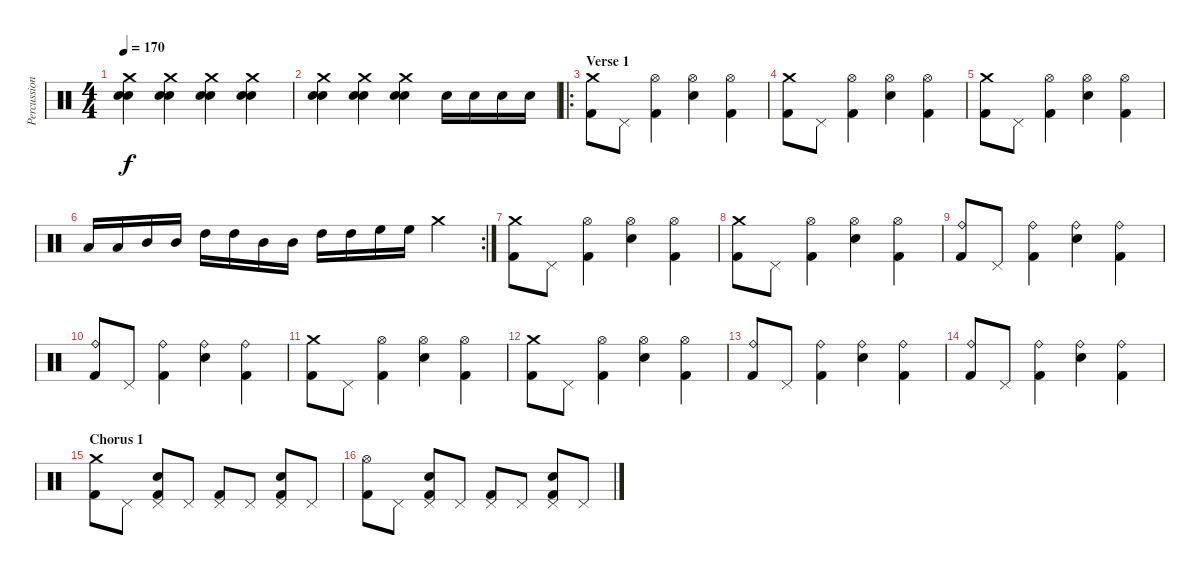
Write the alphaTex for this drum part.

\track ("Percussion" "Percussion") {instrument percussion}
\staff {score}
\articulation defaults
\ts (4 4)
\tempo 170
\clef neutral
\ks c
("Crash medium (hit)" "Electric Snare (hit)" "Electric Snare (hit)").4{dy f} ("Crash medium (hit)" "Electric Snare (hit)" "Electric Snare (hit)").4 ("Crash medium (hit)" "Electric Snare (hit)" "Electric Snare (hit)").4 ("Crash medium (hit)" "Electric Snare (hit)" "Electric Snare (hit)").4 |
("Crash medium (hit)" "Electric Snare (hit)" "Electric Snare (hit)").4 ("Crash medium (hit)" "Electric Snare (hit)" "Electric Snare (hit)").4 ("Crash medium (hit)" "Electric Snare (hit)" "Electric Snare (hit)").4 "Electric Snare (hit)".16 "Electric Snare (hit)".16 "Electric Snare (hit)".16 "Electric Snare (hit)".16 |
\ro
\section ("" "Verse 1")
("Crash medium (hit)" "Kick (hit) 2").8 "Pedal Hi-Hat (hit)".8 ("Hi-Hat (open)" "Kick (hit) 2").4 ("Hi-Hat (open)" "Electric Snare (hit)").4 ("Hi-Hat (open)" "Kick (hit) 2").4 |
("Crash medium (hit)" "Kick (hit) 2").8 "Pedal Hi-Hat (hit)".8 ("Hi-Hat (open)" "Kick (hit) 2").4 ("Hi-Hat (open)" "Electric Snare (hit)").4 ("Hi-Hat (open)" "Kick (hit) 2").4 |
("Crash medium (hit)" "Kick (hit) 2").8 "Pedal Hi-Hat (hit)".8 ("Hi-Hat (open)" "Kick (hit) 2").4 ("Hi-Hat (open)" "Electric Snare (hit)").4 ("Hi-Hat (open)" "Kick (hit) 2").4 |
\rc 2 "Low Tom (hit)".16 "Low Tom (hit)".16 "Mid Tom (hit)".16 "Mid Tom (hit)".16 "High Tom (hit)".16 "High Tom (hit)".16 "Mid Tom (hit)".16 "Mid Tom (hit)".16 "High Tom (hit)".16 "High Tom (hit)".16 "High Floor Tom (hit)".16 "High Floor Tom (hit)".16 "Crash medium (hit)".4
|
("Crash medium (hit)" "Kick (hit) 2").8 "Pedal Hi-Hat (hit)".8 ("Hi-Hat (open)" "Kick (hit) 2").4 ("Hi-Hat (open)" "Electric Snare (hit)").4 ("Hi-Hat (open)" "Kick (hit) 2").4 |
("Crash medium (hit)" "Kick (hit) 2").8 "Pedal Hi-Hat (hit)".8 ("Hi-Hat (open)" "Kick (hit) 2").4 ("Hi-Hat (open)" "Electric Snare (hit)").4 ("Hi-Hat (open)" "Kick (hit) 2").4 |
("Ride (bell)" "Kick (hit) 2").8 "Pedal Hi-Hat (hit)".8 ("Ride (bell)" "Kick (hit) 2").4 ("Ride (bell)" "Electric Snare (hit)").4 ("Ride (bell)" "Kick (hit) 2").4 |
("Ride (bell)" "Kick (hit) 2").8 "Pedal Hi-Hat (hit)".8 ("Ride (bell)" "Kick (hit) 2").4 ("Ride (bell)" "Electric Snare (hit)").4 ("Ride (bell)" "Kick (hit) 2").4 |
("Crash medium (hit)" "Kick (hit) 2").8 "Pedal Hi-Hat (hit)".8 ("Hi-Hat (open)" "Kick (hit) 2").4 ("Hi-Hat (open)" "Electric Snare (hit)").4 ("Hi-Hat (open)" "Kick (hit) 2").4 |
("Crash medium (hit)" "Kick (hit) 2").8 "Pedal Hi-Hat (hit)".8 ("Hi-Hat (open)" "Kick (hit) 2").4 ("Hi-Hat (open)" "Electric Snare (hit)").4 ("Hi-Hat (open)" "Kick (hit) 2").4 |
("Ride (bell)" "Kick (hit) 2").8 "Pedal Hi-Hat (hit)".8 ("Ride (bell)" "Kick (hit) 2").4 ("Ride (bell)" "Electric Snare (hit)").4 ("Ride (bell)" "Kick (hit) 2").4 |
("Ride (bell)" "Kick (hit) 2").8 "Pedal Hi-Hat (hit)".8 ("Ride (bell)" "Kick (hit) 2").4 ("Ride (bell)" "Electric Snare (hit)").4 ("Ride (bell)" "Kick (hit) 2").4 |
\section ("" "Chorus 1")
("Crash medium (hit)" "Kick (hit) 2").8 "Pedal Hi-Hat (hit)".8 ("Pedal Hi-Hat (hit)" "Electric Snare (hit)" "Kick (hit) 2").8 "Pedal Hi-Hat (hit)".8 ("Pedal Hi-Hat (hit)" "Kick (hit) 2").8 "Pedal Hi-Hat (hit)".8 ("Pedal Hi-Hat (hit)" "Electric Snare (hit)" "Kick (hit) 2").8 "Pedal Hi-Hat (hit)".8 |
("Hi-Hat (open)" "Kick (hit) 2").8 "Pedal Hi-Hat (hit)".8 ("Pedal Hi-Hat (hit)" "Electric Snare (hit)" "Kick (hit) 2").8 "Pedal Hi-Hat (hit)".8 ("Pedal Hi-Hat (hit)" "Kick (hit) 2").8 "Pedal Hi-Hat (hit)".8 ("Pedal Hi-Hat (hit)" "Electric Snare (hit)" "Kick (hit) 2").8 "Pedal Hi-Hat (hit)".8
